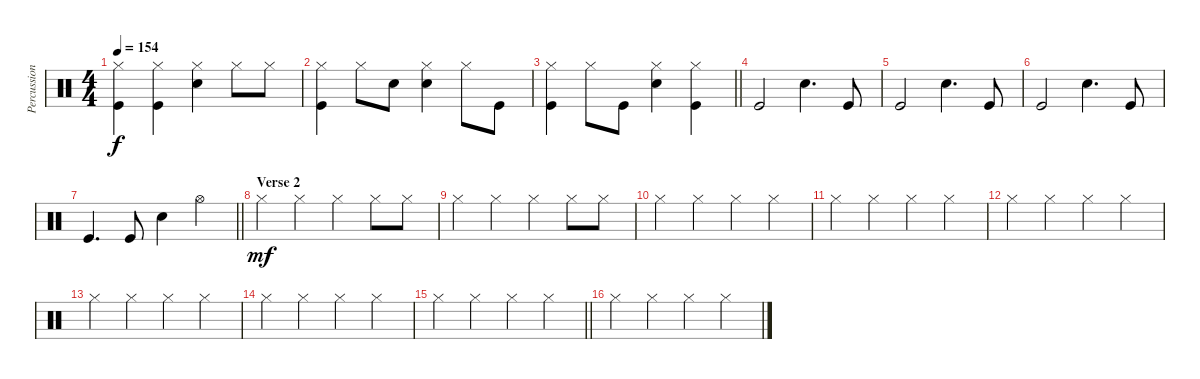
\track ("Percussion" "Percussion") {instrument percussion}
\staff {score}
\articulation defaults
\ts (4 4)
\tempo 154
\clef neutral
\ks c
("Hi-Hat (closed)" "Kick (hit)").4{dy f} ("Hi-Hat (closed)" "Kick (hit)").4 ("Hi-Hat (closed)" "Snare (hit) 2").4 "Hi-Hat (closed)".8 "Hi-Hat (closed)".8 |
("Hi-Hat (closed)" "Kick (hit)").4 "Hi-Hat (closed)".8 "Electric Snare (hit)".8 ("Hi-Hat (closed)" "Snare (hit) 2").4 "Hi-Hat (closed)".8 "Kick (hit)".8 |
\barLineRight lightlight
("Hi-Hat (closed)" "Kick (hit)").4 "Hi-Hat (closed)".8 "Kick (hit)".8 ("Hi-Hat (closed)" "Snare (hit) 2").4 ("Hi-Hat (closed)" "Kick (hit)").4 |
"Kick (hit)".2 "Snare (hit) 2".4{d} "Kick (hit)".8 |
"Kick (hit)".2 "Snare (hit) 2".4{d} "Kick (hit)".8 |
"Kick (hit)".2 "Snare (hit) 2".4{d} "Kick (hit)".8 |
\barLineRight lightlight "Kick (hit)".4{d} "Kick (hit)".8 "Snare (hit) 2".4 "Hi-Hat (open)".4
|
\section ("" "Verse 2")
"Hi-Hat (closed)".4{dy mf} "Hi-Hat (closed)".4 "Hi-Hat (closed)".4 "Hi-Hat (closed)".8 "Hi-Hat (closed)".8 |
"Hi-Hat (closed)".4 "Hi-Hat (closed)".4 "Hi-Hat (closed)".4 "Hi-Hat (closed)".8 "Hi-Hat (closed)".8 |
"Hi-Hat (closed)".4 "Hi-Hat (closed)".4 "Hi-Hat (closed)".4 "Hi-Hat (closed)".4 |
"Hi-Hat (closed)".4 "Hi-Hat (closed)".4 "Hi-Hat (closed)".4 "Hi-Hat (closed)".4 |
"Hi-Hat (closed)".4 "Hi-Hat (closed)".4 "Hi-Hat (closed)".4 "Hi-Hat (closed)".4 |
"Hi-Hat (closed)".4 "Hi-Hat (closed)".4 "Hi-Hat (closed)".4 "Hi-Hat (closed)".4 |
"Hi-Hat (closed)".4 "Hi-Hat (closed)".4 "Hi-Hat (closed)".4 "Hi-Hat (closed)".4 |
\barLineRight lightlight "Hi-Hat (closed)".4 "Hi-Hat (closed)".4 "Hi-Hat (closed)".4 "Hi-Hat (closed)".4
|
"Hi-Hat (closed)".4 "Hi-Hat (closed)".4 "Hi-Hat (closed)".4 "Hi-Hat (closed)".4
